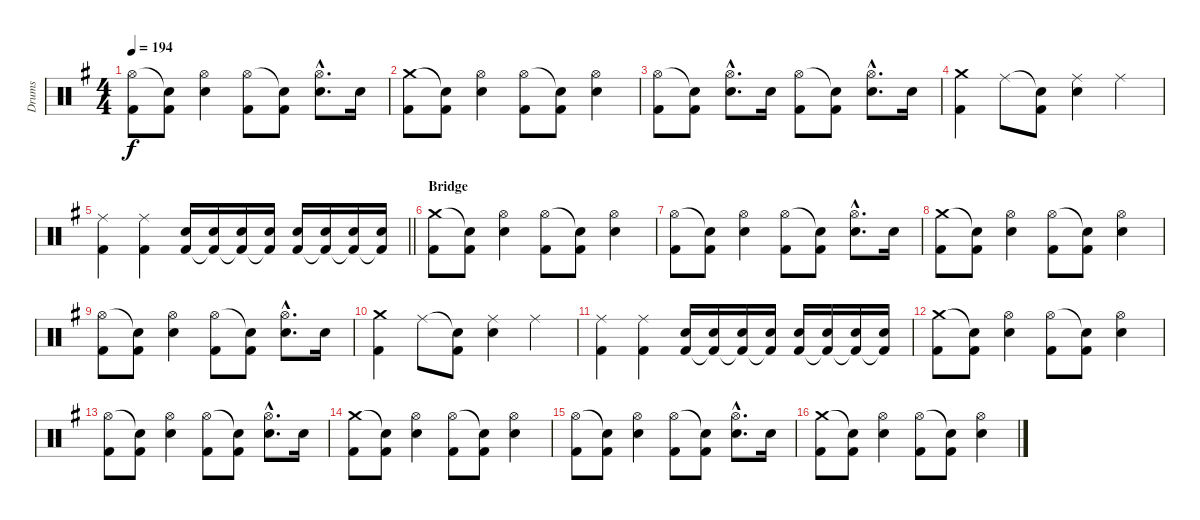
\track ("Drums" "Drums") {instrument percussion}
\staff {score}
\articulation defaults
\ts (4 4)
\tempo 194
\clef neutral
\ks eminor
("Hi-Hat (open)" "Kick (hit) 2").8{dy f} ("Snare (hit)"{t} "Kick (hit) 2").8 ("Hi-Hat (open)" "Electric Snare (hit)").4 ("Hi-Hat (open)" "Kick (hit) 2").8 ("Snare (hit)"{t} "Kick (hit) 2").8 ("Hi-Hat (open)"{hac} "Electric Snare (hit)"{hac}).8{d} "Electric Snare (hit)".16 |
("Crash medium (hit)" "Kick (hit) 2").8 ("Snare (hit)"{t} "Kick (hit) 2").8 ("Hi-Hat (open)" "Electric Snare (hit)").4 ("Hi-Hat (open)" "Kick (hit) 2").8 ("Snare (hit)"{t} "Kick (hit) 2").8 ("Hi-Hat (open)" "Electric Snare (hit)").4 |
("Hi-Hat (open)" "Kick (hit) 2").8 ("Snare (hit)"{t} "Kick (hit) 2").8 ("Hi-Hat (open)"{hac} "Electric Snare (hit)"{hac}).8{d} "Electric Snare (hit)".16 ("Hi-Hat (open)" "Kick (hit) 2").8 ("Snare (hit)"{t} "Kick (hit) 2").8 ("Hi-Hat (open)"{hac} "Electric Snare (hit)"{hac}).8{d} "Electric Snare (hit)".16 |
("Crash medium (hit)" "Kick (hit) 2").4 "Ride (middle)".8 ("Snare (hit)"{t} "Kick (hit) 2").8 ("Ride (middle)" "Electric Snare (hit)").4 "Ride (middle)".4 |
\barLineRight lightlight
("Ride (middle)" "Kick (hit) 2").4 ("Ride (middle)" "Kick (hit) 2").4 ("Electric Snare (hit)" "Kick (hit) 2").16 ("Electric Snare (hit)" "Kick (hit) 2"{t}).16 ("Electric Snare (hit)" "Kick (hit) 2"{t}).16 ("Electric Snare (hit)" "Kick (hit) 2"{t}).16 ("Electric Snare (hit)" "Kick (hit) 2").16 ("Electric Snare (hit)" "Kick (hit) 2"{t}).16 ("Electric Snare (hit)" "Kick (hit) 2"{t}).16 ("Electric Snare (hit)" "Kick (hit) 2"{t}).16 |
\section ("" "Bridge")
("Crash medium (hit)" "Kick (hit) 2").8 ("Snare (hit)"{t} "Kick (hit) 2").8 ("Hi-Hat (open)" "Electric Snare (hit)").4 ("Hi-Hat (open)" "Kick (hit) 2").8 ("Snare (hit)"{t} "Kick (hit) 2").8 ("Hi-Hat (open)" "Electric Snare (hit)").4 |
("Hi-Hat (open)" "Kick (hit) 2").8 ("Snare (hit)"{t} "Kick (hit) 2").8 ("Hi-Hat (open)" "Electric Snare (hit)").4 ("Hi-Hat (open)" "Kick (hit) 2").8 ("Snare (hit)"{t} "Kick (hit) 2").8 ("Hi-Hat (open)"{hac} "Electric Snare (hit)"{hac}).8{d} "Electric Snare (hit)".16 |
("Crash medium (hit)" "Kick (hit) 2").8 ("Snare (hit)"{t} "Kick (hit) 2").8 ("Hi-Hat (open)" "Electric Snare (hit)").4 ("Hi-Hat (open)" "Kick (hit) 2").8 ("Snare (hit)"{t} "Kick (hit) 2").8 ("Hi-Hat (open)" "Electric Snare (hit)").4 |
("Hi-Hat (open)" "Kick (hit) 2").8 ("Snare (hit)"{t} "Kick (hit) 2").8 ("Hi-Hat (open)" "Electric Snare (hit)").4 ("Hi-Hat (open)" "Kick (hit) 2").8 ("Snare (hit)"{t} "Kick (hit) 2").8 ("Hi-Hat (open)"{hac} "Electric Snare (hit)"{hac}).8{d} "Electric Snare (hit)".16 |
("Crash medium (hit)" "Kick (hit) 2").4 "Ride (middle)".8 ("Snare (hit)"{t} "Kick (hit) 2").8 ("Ride (middle)" "Electric Snare (hit)").4 "Ride (middle)".4 |
("Ride (middle)" "Kick (hit) 2").4 ("Ride (middle)" "Kick (hit) 2").4 ("Electric Snare (hit)" "Kick (hit) 2").16 ("Electric Snare (hit)" "Kick (hit) 2"{t}).16 ("Electric Snare (hit)" "Kick (hit) 2"{t}).16 ("Electric Snare (hit)" "Kick (hit) 2"{t}).16 ("Electric Snare (hit)" "Kick (hit) 2").16 ("Electric Snare (hit)" "Kick (hit) 2"{t}).16 ("Electric Snare (hit)" "Kick (hit) 2"{t}).16 ("Electric Snare (hit)" "Kick (hit) 2"{t}).16 |
("Crash medium (hit)" "Kick (hit) 2").8 ("Snare (hit)"{t} "Kick (hit) 2").8 ("Hi-Hat (open)" "Electric Snare (hit)").4 ("Hi-Hat (open)" "Kick (hit) 2").8 ("Snare (hit)"{t} "Kick (hit) 2").8 ("Hi-Hat (open)" "Electric Snare (hit)").4 |
("Hi-Hat (open)" "Kick (hit) 2").8 ("Snare (hit)"{t} "Kick (hit) 2").8 ("Hi-Hat (open)" "Electric Snare (hit)").4 ("Hi-Hat (open)" "Kick (hit) 2").8 ("Snare (hit)"{t} "Kick (hit) 2").8 ("Hi-Hat (open)"{hac} "Electric Snare (hit)"{hac}).8{d} "Electric Snare (hit)".16 |
("Crash medium (hit)" "Kick (hit) 2").8 ("Snare (hit)"{t} "Kick (hit) 2").8 ("Hi-Hat (open)" "Electric Snare (hit)").4 ("Hi-Hat (open)" "Kick (hit) 2").8 ("Snare (hit)"{t} "Kick (hit) 2").8 ("Hi-Hat (open)" "Electric Snare (hit)").4 |
("Hi-Hat (open)" "Kick (hit) 2").8 ("Snare (hit)"{t} "Kick (hit) 2").8 ("Hi-Hat (open)" "Electric Snare (hit)").4 ("Hi-Hat (open)" "Kick (hit) 2").8 ("Snare (hit)"{t} "Kick (hit) 2").8 ("Hi-Hat (open)"{hac} "Electric Snare (hit)"{hac}).8{d} "Electric Snare (hit)".16 |
("Crash medium (hit)" "Kick (hit) 2").8 ("Snare (hit)"{t} "Kick (hit) 2").8 ("Hi-Hat (open)" "Electric Snare (hit)").4 ("Hi-Hat (open)" "Kick (hit) 2").8 ("Snare (hit)"{t} "Kick (hit) 2").8 ("Hi-Hat (open)" "Electric Snare (hit)").4
